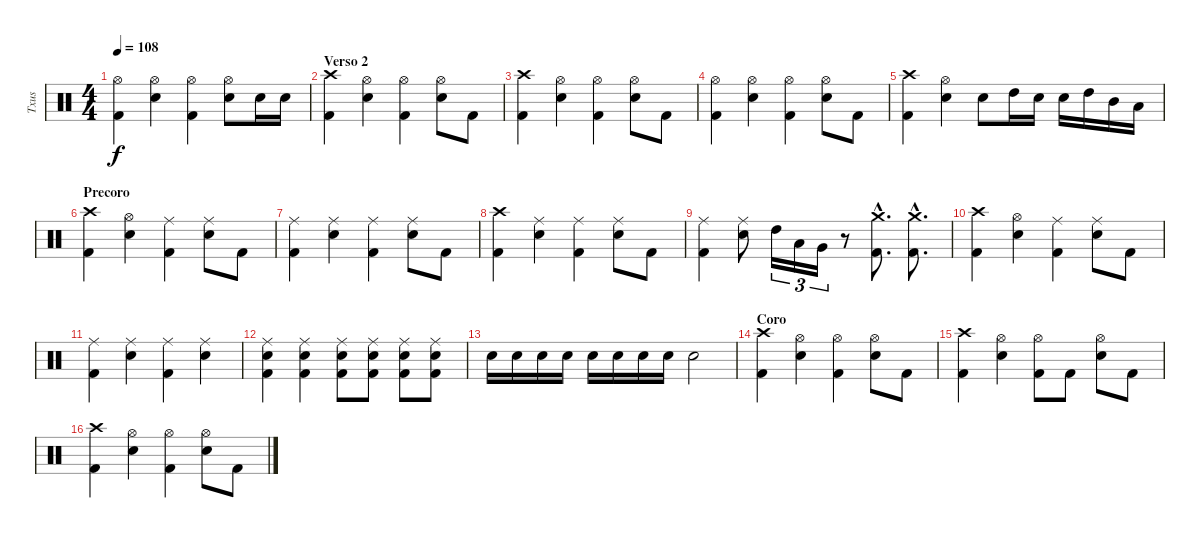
\track ("Txus" "Txus") {instrument percussion}
\staff {score}
\articulation defaults
\ts (4 4)
\tempo 108
\clef neutral
\ks c
("Kick (hit) 2" "Hi-Hat (open)").4{dy f} ("Electric Snare (hit)" "Hi-Hat (open)").4 ("Kick (hit) 2" "Hi-Hat (open)").4 ("Electric Snare (hit)" "Hi-Hat (open)").8 "Electric Snare (hit)".16 "Electric Snare (hit)".16 |
\section ("" "Verso 2")
("Kick (hit) 2" "Crash high (hit)").4 ("Electric Snare (hit)" "Hi-Hat (open)").4 ("Kick (hit) 2" "Hi-Hat (open)").4 ("Electric Snare (hit)" "Hi-Hat (open)").8 "Kick (hit) 2".8 |
("Kick (hit) 2" "Crash high (hit)").4 ("Electric Snare (hit)" "Hi-Hat (open)").4 ("Kick (hit) 2" "Hi-Hat (open)").4 ("Electric Snare (hit)" "Hi-Hat (open)").8 "Kick (hit) 2".8 |
("Kick (hit) 2" "Hi-Hat (open)").4 ("Electric Snare (hit)" "Hi-Hat (open)").4 ("Kick (hit) 2" "Hi-Hat (open)").4 ("Electric Snare (hit)" "Hi-Hat (open)").8 "Kick (hit) 2".8 |
("Kick (hit) 2" "Crash high (hit)").4 ("Electric Snare (hit)" "Hi-Hat (open)").4 "Electric Snare (hit)".8 "High Tom (hit)".16 "Electric Snare (hit)".16 "Electric Snare (hit)".16 "High Tom (hit)".16 "Mid Tom (hit)".16 "Low Tom (hit)".16 |
\section ("" "Precoro")
("Kick (hit) 2" "Crash high (hit)").4 ("Electric Snare (hit)" "Hi-Hat (open)").4 ("Kick (hit) 2" "Ride (middle)").4 ("Electric Snare (hit)" "Ride (middle)").8 "Kick (hit) 2".8 |
("Kick (hit) 2" "Ride (middle)").4 ("Electric Snare (hit)" "Ride (middle)").4 ("Kick (hit) 2" "Ride (middle)").4 ("Electric Snare (hit)" "Ride (middle)").8 "Kick (hit) 2".8 |
("Kick (hit) 2" "Crash high (hit)").4 ("Electric Snare (hit)" "Ride (middle)").4 ("Kick (hit) 2" "Ride (middle)").4 ("Electric Snare (hit)" "Ride (middle)").8 "Kick (hit) 2".8 |
("Kick (hit) 2" "Ride (middle)").4 ("Electric Snare (hit)" "Ride (middle)").8 "High Tom (hit)".16{tu (3 2)} "Low Tom (hit)".16{tu (3 2)} "Very Low Tom (hit)".16{tu (3 2)} r.8 ("Kick (hit) 2"{hac} "Crash medium (hit)"{hac}).8{d} ("Kick (hit) 2"{hac} "Crash medium (hit)"{hac}).8{d} |
("Kick (hit) 2" "Crash high (hit)").4 ("Electric Snare (hit)" "Hi-Hat (open)").4 ("Kick (hit) 2" "Ride (middle)").4 ("Electric Snare (hit)" "Ride (middle)").8 "Kick (hit) 2".8 |
("Kick (hit) 2" "Ride (middle)").4 ("Electric Snare (hit)" "Ride (middle)").4 ("Kick (hit) 2" "Ride (middle)").4 ("Electric Snare (hit)" "Ride (middle)").4 |
("Kick (hit) 2" "Electric Snare (hit)" "Ride (middle)").4 ("Kick (hit) 2" "Electric Snare (hit)" "Ride (middle)").4 ("Kick (hit) 2" "Electric Snare (hit)" "Ride (middle)").8 ("Kick (hit) 2" "Electric Snare (hit)" "Ride (middle)").8 ("Kick (hit) 2" "Electric Snare (hit)" "Ride (middle)").8 ("Kick (hit) 2" "Electric Snare (hit)" "Ride (middle)").8 |
"Electric Snare (hit)".16 "Electric Snare (hit)".16 "Electric Snare (hit)".16 "Electric Snare (hit)".16 "Electric Snare (hit)".16 "Electric Snare (hit)".16 "Electric Snare (hit)".16 "Electric Snare (hit)".16 "Electric Snare (hit)".2 |
\section ("" "Coro")
("Kick (hit) 2" "Crash high (hit)").4 ("Electric Snare (hit)" "Hi-Hat (open)").4 ("Kick (hit) 2" "Hi-Hat (open)").4 ("Electric Snare (hit)" "Hi-Hat (open)").8 "Kick (hit) 2".8 |
("Kick (hit) 2" "Crash high (hit)").4 ("Electric Snare (hit)" "Hi-Hat (open)").4 ("Kick (hit) 2" "Hi-Hat (open)").8 "Kick (hit) 2".8 ("Electric Snare (hit)" "Hi-Hat (open)").8 "Kick (hit) 2".8 |
("Kick (hit) 2" "Crash high (hit)").4 ("Electric Snare (hit)" "Hi-Hat (open)").4 ("Kick (hit) 2" "Hi-Hat (open)").4 ("Electric Snare (hit)" "Hi-Hat (open)").8 "Kick (hit) 2".8
